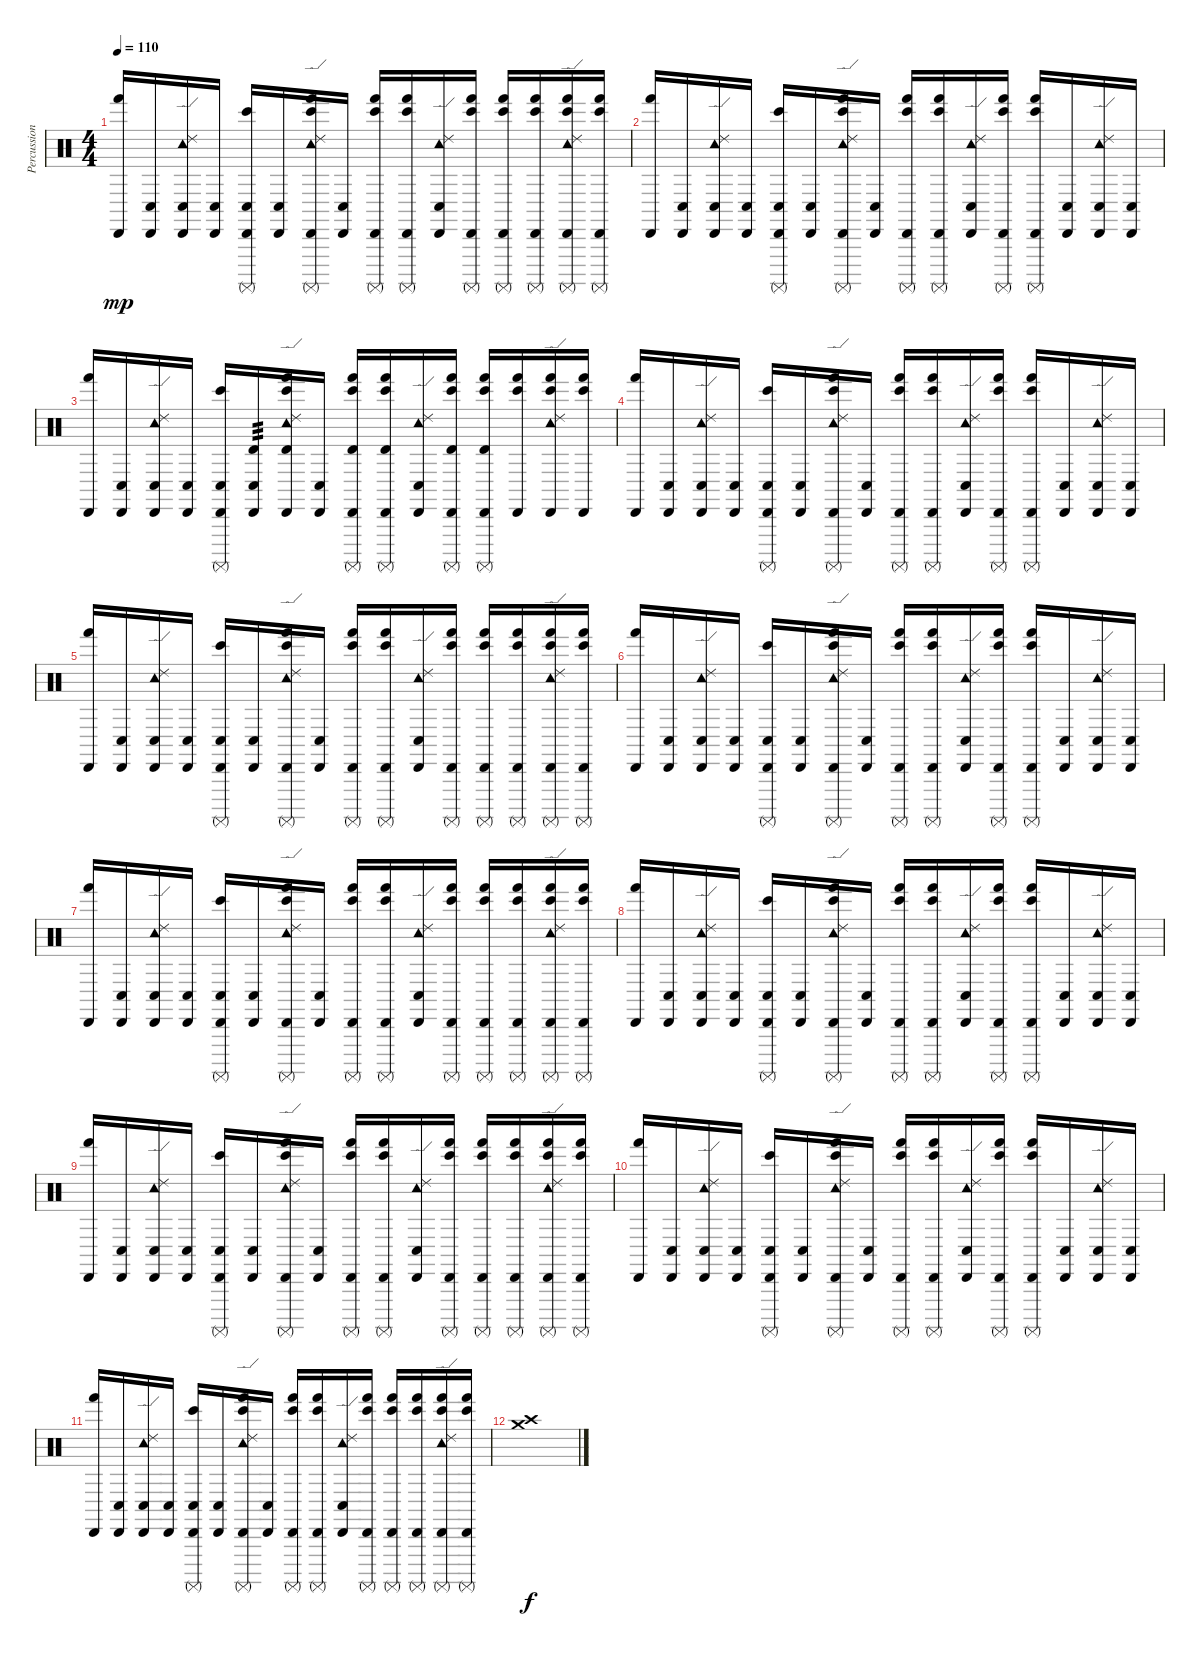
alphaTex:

\track ("Percussion" "Percussion") {instrument percussion}
\staff {score}
\articulation defaults
\ts (4 4)
\tempo 110
\clef neutral
\ks c
("Cabasa (hit)" "Hand (hit)").16{dy mp} ("Cabasa (hit)" "Conga low (hit)").16 ("Tambourine (hit)" "Ride (edge) 2" "Cabasa (hit)" "Conga low (hit)").16 ("Cabasa (hit)" "Conga low (hit)").16 ("Cabasa (hit)" "Surdo (mute)" "Bongo High (hit)" "Conga low (hit)").16 ("Cabasa (hit)" "Conga low (hit)").16 ("Tambourine (hit)" "Ride (edge) 2" "Cabasa (hit)" "Surdo (mute)" "Bongo High (hit)" "Hand (hit)").16 ("Cabasa (hit)" "Conga low (hit)").16 ("Cabasa (hit)" "Surdo (mute)" "Bongo High (hit)" "Hand (hit)").16 ("Cabasa (hit)" "Surdo (mute)" "Bongo High (hit)" "Hand (hit)").16 ("Tambourine (hit)" "Ride (edge) 2" "Cabasa (hit)" "Conga low (hit)").16 ("Cabasa (hit)" "Surdo (mute)" "Bongo High (hit)" "Hand (hit)").16 ("Cabasa (hit)" "Surdo (mute)" "Bongo High (hit)" "Hand (hit)").16 ("Cabasa (hit)" "Surdo (mute)" "Bongo High (hit)" "Hand (hit)").16 ("Tambourine (hit)" "Ride (edge) 2" "Cabasa (hit)" "Surdo (mute)" "Bongo High (hit)" "Hand (hit)").16 ("Cabasa (hit)" "Surdo (mute)" "Bongo High (hit)" "Hand (hit)").16 |
("Cabasa (hit)" "Hand (hit)").16 ("Cabasa (hit)" "Conga low (hit)").16 ("Tambourine (hit)" "Ride (edge) 2" "Cabasa (hit)" "Conga low (hit)").16 ("Cabasa (hit)" "Conga low (hit)").16 ("Cabasa (hit)" "Surdo (mute)" "Bongo High (hit)" "Conga low (hit)").16 ("Cabasa (hit)" "Conga low (hit)").16 ("Tambourine (hit)" "Ride (edge) 2" "Cabasa (hit)" "Surdo (mute)" "Bongo High (hit)" "Hand (hit)").16 ("Cabasa (hit)" "Conga low (hit)").16 ("Cabasa (hit)" "Surdo (mute)" "Bongo High (hit)" "Hand (hit)").16 ("Cabasa (hit)" "Surdo (mute)" "Bongo High (hit)" "Hand (hit)").16 ("Tambourine (hit)" "Ride (edge) 2" "Cabasa (hit)" "Conga low (hit)").16 ("Cabasa (hit)" "Surdo (mute)" "Bongo High (hit)" "Hand (hit)").16 ("Cabasa (hit)" "Surdo (mute)" "Bongo High (hit)" "Hand (hit)").16 ("Cabasa (hit)" "Conga low (hit)").16 ("Tambourine (hit)" "Ride (edge) 2" "Cabasa (hit)" "Conga low (hit)").16 ("Cabasa (hit)" "Conga low (hit)").16 |
("Cabasa (hit)" "Hand (hit)").16 ("Cabasa (hit)" "Conga low (hit)").16 ("Tambourine (hit)" "Ride (edge) 2" "Cabasa (hit)" "Conga low (hit)").16 ("Cabasa (hit)" "Conga low (hit)").16 ("Cabasa (hit)" "Surdo (mute)" "Bongo High (hit)" "Conga low (hit)").16 ("Cabasa (hit)" "Timbale high (hit)" "Conga low (hit)").16{tp 3} ("Tambourine (hit)" "Ride (edge) 2" "Cabasa (hit)" "Timbale high (hit)" "Bongo High (hit)" "Hand (hit)").16 ("Cabasa (hit)" "Conga low (hit)").16 ("Surdo (mute)" "Cabasa (hit)" "Timbale high (hit)" "Bongo High (hit)" "Hand (hit)").16 ("Surdo (mute)" "Cabasa (hit)" "Timbale high (hit)" "Bongo High (hit)" "Hand (hit)").16 ("Tambourine (hit)" "Ride (edge) 2" "Cabasa (hit)" "Conga low (hit)").16 ("Surdo (mute)" "Cabasa (hit)" "Timbale high (hit)" "Bongo High (hit)" "Hand (hit)").16 ("Surdo (mute)" "Cabasa (hit)" "Timbale high (hit)" "Bongo High (hit)" "Hand (hit)").16 ("Cabasa (hit)" "Bongo High (hit)" "Hand (hit)").16 ("Tambourine (hit)" "Ride (edge) 2" "Cabasa (hit)" "Bongo High (hit)" "Hand (hit)").16 ("Cabasa (hit)" "Bongo High (hit)" "Hand (hit)").16 |
("Cabasa (hit)" "Hand (hit)").16 ("Cabasa (hit)" "Conga low (hit)").16 ("Tambourine (hit)" "Ride (edge) 2" "Cabasa (hit)" "Conga low (hit)").16 ("Cabasa (hit)" "Conga low (hit)").16 ("Cabasa (hit)" "Surdo (mute)" "Bongo High (hit)" "Conga low (hit)").16 ("Cabasa (hit)" "Conga low (hit)").16 ("Tambourine (hit)" "Ride (edge) 2" "Cabasa (hit)" "Surdo (mute)" "Bongo High (hit)" "Hand (hit)").16 ("Cabasa (hit)" "Conga low (hit)").16 ("Cabasa (hit)" "Surdo (mute)" "Bongo High (hit)" "Hand (hit)").16 ("Cabasa (hit)" "Surdo (mute)" "Bongo High (hit)" "Hand (hit)").16 ("Tambourine (hit)" "Ride (edge) 2" "Cabasa (hit)" "Conga low (hit)").16 ("Cabasa (hit)" "Surdo (mute)" "Bongo High (hit)" "Hand (hit)").16 ("Cabasa (hit)" "Surdo (mute)" "Bongo High (hit)" "Hand (hit)").16 ("Cabasa (hit)" "Conga low (hit)").16 ("Tambourine (hit)" "Ride (edge) 2" "Cabasa (hit)" "Conga low (hit)").16 ("Cabasa (hit)" "Conga low (hit)").16 |
("Cabasa (hit)" "Hand (hit)").16 ("Cabasa (hit)" "Conga low (hit)").16 ("Tambourine (hit)" "Ride (edge) 2" "Cabasa (hit)" "Conga low (hit)").16 ("Cabasa (hit)" "Conga low (hit)").16 ("Cabasa (hit)" "Surdo (mute)" "Bongo High (hit)" "Conga low (hit)").16 ("Cabasa (hit)" "Conga low (hit)").16 ("Tambourine (hit)" "Ride (edge) 2" "Cabasa (hit)" "Surdo (mute)" "Bongo High (hit)" "Hand (hit)").16 ("Cabasa (hit)" "Conga low (hit)").16 ("Cabasa (hit)" "Surdo (mute)" "Bongo High (hit)" "Hand (hit)").16 ("Cabasa (hit)" "Surdo (mute)" "Bongo High (hit)" "Hand (hit)").16 ("Tambourine (hit)" "Ride (edge) 2" "Cabasa (hit)" "Conga low (hit)").16 ("Cabasa (hit)" "Surdo (mute)" "Bongo High (hit)" "Hand (hit)").16 ("Cabasa (hit)" "Surdo (mute)" "Bongo High (hit)" "Hand (hit)").16 ("Cabasa (hit)" "Surdo (mute)" "Bongo High (hit)" "Hand (hit)").16 ("Tambourine (hit)" "Ride (edge) 2" "Cabasa (hit)" "Surdo (mute)" "Bongo High (hit)" "Hand (hit)").16 ("Cabasa (hit)" "Surdo (mute)" "Bongo High (hit)" "Hand (hit)").16 |
("Cabasa (hit)" "Hand (hit)").16 ("Cabasa (hit)" "Conga low (hit)").16 ("Tambourine (hit)" "Ride (edge) 2" "Cabasa (hit)" "Conga low (hit)").16 ("Cabasa (hit)" "Conga low (hit)").16 ("Cabasa (hit)" "Surdo (mute)" "Bongo High (hit)" "Conga low (hit)").16 ("Cabasa (hit)" "Conga low (hit)").16 ("Tambourine (hit)" "Ride (edge) 2" "Cabasa (hit)" "Surdo (mute)" "Bongo High (hit)" "Hand (hit)").16 ("Cabasa (hit)" "Conga low (hit)").16 ("Cabasa (hit)" "Surdo (mute)" "Bongo High (hit)" "Hand (hit)").16 ("Cabasa (hit)" "Surdo (mute)" "Bongo High (hit)" "Hand (hit)").16 ("Tambourine (hit)" "Ride (edge) 2" "Cabasa (hit)" "Conga low (hit)").16 ("Cabasa (hit)" "Surdo (mute)" "Bongo High (hit)" "Hand (hit)").16 ("Cabasa (hit)" "Surdo (mute)" "Bongo High (hit)" "Hand (hit)").16 ("Cabasa (hit)" "Conga low (hit)").16 ("Tambourine (hit)" "Ride (edge) 2" "Cabasa (hit)" "Conga low (hit)").16 ("Cabasa (hit)" "Conga low (hit)").16 |
("Cabasa (hit)" "Hand (hit)").16 ("Cabasa (hit)" "Conga low (hit)").16 ("Tambourine (hit)" "Ride (edge) 2" "Cabasa (hit)" "Conga low (hit)").16 ("Cabasa (hit)" "Conga low (hit)").16 ("Cabasa (hit)" "Surdo (mute)" "Bongo High (hit)" "Conga low (hit)").16 ("Cabasa (hit)" "Conga low (hit)").16 ("Tambourine (hit)" "Ride (edge) 2" "Cabasa (hit)" "Surdo (mute)" "Bongo High (hit)" "Hand (hit)").16 ("Cabasa (hit)" "Conga low (hit)").16 ("Cabasa (hit)" "Surdo (mute)" "Bongo High (hit)" "Hand (hit)").16 ("Cabasa (hit)" "Surdo (mute)" "Bongo High (hit)" "Hand (hit)").16 ("Tambourine (hit)" "Ride (edge) 2" "Cabasa (hit)" "Conga low (hit)").16 ("Cabasa (hit)" "Surdo (mute)" "Bongo High (hit)" "Hand (hit)").16 ("Cabasa (hit)" "Surdo (mute)" "Bongo High (hit)" "Hand (hit)").16 ("Cabasa (hit)" "Surdo (mute)" "Bongo High (hit)" "Hand (hit)").16 ("Tambourine (hit)" "Ride (edge) 2" "Cabasa (hit)" "Surdo (mute)" "Bongo High (hit)" "Hand (hit)").16 ("Cabasa (hit)" "Surdo (mute)" "Bongo High (hit)" "Hand (hit)").16 |
("Cabasa (hit)" "Hand (hit)").16 ("Cabasa (hit)" "Conga low (hit)").16 ("Tambourine (hit)" "Ride (edge) 2" "Cabasa (hit)" "Conga low (hit)").16 ("Cabasa (hit)" "Conga low (hit)").16 ("Cabasa (hit)" "Surdo (mute)" "Bongo High (hit)" "Conga low (hit)").16 ("Cabasa (hit)" "Conga low (hit)").16 ("Tambourine (hit)" "Ride (edge) 2" "Cabasa (hit)" "Surdo (mute)" "Bongo High (hit)" "Hand (hit)").16 ("Cabasa (hit)" "Conga low (hit)").16 ("Cabasa (hit)" "Surdo (mute)" "Bongo High (hit)" "Hand (hit)").16 ("Cabasa (hit)" "Surdo (mute)" "Bongo High (hit)" "Hand (hit)").16 ("Tambourine (hit)" "Ride (edge) 2" "Cabasa (hit)" "Conga low (hit)").16 ("Cabasa (hit)" "Surdo (mute)" "Bongo High (hit)" "Hand (hit)").16 ("Cabasa (hit)" "Surdo (mute)" "Bongo High (hit)" "Hand (hit)").16 ("Cabasa (hit)" "Conga low (hit)").16 ("Tambourine (hit)" "Ride (edge) 2" "Cabasa (hit)" "Conga low (hit)").16 ("Cabasa (hit)" "Conga low (hit)").16 |
("Cabasa (hit)" "Hand (hit)").16 ("Cabasa (hit)" "Conga low (hit)").16 ("Tambourine (hit)" "Ride (edge) 2" "Cabasa (hit)" "Conga low (hit)").16 ("Cabasa (hit)" "Conga low (hit)").16 ("Cabasa (hit)" "Surdo (mute)" "Bongo High (hit)" "Conga low (hit)").16 ("Cabasa (hit)" "Conga low (hit)").16 ("Tambourine (hit)" "Ride (edge) 2" "Cabasa (hit)" "Surdo (mute)" "Bongo High (hit)" "Hand (hit)").16 ("Cabasa (hit)" "Conga low (hit)").16 ("Cabasa (hit)" "Surdo (mute)" "Bongo High (hit)" "Hand (hit)").16 ("Cabasa (hit)" "Surdo (mute)" "Bongo High (hit)" "Hand (hit)").16 ("Tambourine (hit)" "Ride (edge) 2" "Cabasa (hit)" "Conga low (hit)").16 ("Cabasa (hit)" "Surdo (mute)" "Bongo High (hit)" "Hand (hit)").16 ("Cabasa (hit)" "Surdo (mute)" "Bongo High (hit)" "Hand (hit)").16 ("Cabasa (hit)" "Surdo (mute)" "Bongo High (hit)" "Hand (hit)").16 ("Tambourine (hit)" "Ride (edge) 2" "Cabasa (hit)" "Surdo (mute)" "Bongo High (hit)" "Hand (hit)").16 ("Cabasa (hit)" "Surdo (mute)" "Bongo High (hit)" "Hand (hit)").16 |
("Cabasa (hit)" "Hand (hit)").16 ("Cabasa (hit)" "Conga low (hit)").16 ("Tambourine (hit)" "Ride (edge) 2" "Cabasa (hit)" "Conga low (hit)").16 ("Cabasa (hit)" "Conga low (hit)").16 ("Cabasa (hit)" "Surdo (mute)" "Bongo High (hit)" "Conga low (hit)").16 ("Cabasa (hit)" "Conga low (hit)").16 ("Tambourine (hit)" "Ride (edge) 2" "Cabasa (hit)" "Surdo (mute)" "Bongo High (hit)" "Hand (hit)").16 ("Cabasa (hit)" "Conga low (hit)").16 ("Cabasa (hit)" "Surdo (mute)" "Bongo High (hit)" "Hand (hit)").16 ("Cabasa (hit)" "Surdo (mute)" "Bongo High (hit)" "Hand (hit)").16 ("Tambourine (hit)" "Ride (edge) 2" "Cabasa (hit)" "Conga low (hit)").16 ("Cabasa (hit)" "Surdo (mute)" "Bongo High (hit)" "Hand (hit)").16 ("Cabasa (hit)" "Surdo (mute)" "Bongo High (hit)" "Hand (hit)").16 ("Cabasa (hit)" "Conga low (hit)").16 ("Tambourine (hit)" "Ride (edge) 2" "Cabasa (hit)" "Conga low (hit)").16 ("Cabasa (hit)" "Conga low (hit)").16 |
("Cabasa (hit)" "Hand (hit)").16 ("Cabasa (hit)" "Conga low (hit)").16 ("Tambourine (hit)" "Ride (edge) 2" "Cabasa (hit)" "Conga low (hit)").16 ("Cabasa (hit)" "Conga low (hit)").16 ("Cabasa (hit)" "Surdo (mute)" "Bongo High (hit)" "Conga low (hit)").16 ("Cabasa (hit)" "Conga low (hit)").16 ("Tambourine (hit)" "Ride (edge) 2" "Cabasa (hit)" "Surdo (mute)" "Bongo High (hit)" "Hand (hit)").16 ("Cabasa (hit)" "Conga low (hit)").16 ("Cabasa (hit)" "Surdo (mute)" "Bongo High (hit)" "Hand (hit)").16 ("Cabasa (hit)" "Surdo (mute)" "Bongo High (hit)" "Hand (hit)").16 ("Tambourine (hit)" "Ride (edge) 2" "Cabasa (hit)" "Conga low (hit)").16 ("Cabasa (hit)" "Surdo (mute)" "Bongo High (hit)" "Hand (hit)").16 ("Cabasa (hit)" "Surdo (mute)" "Bongo High (hit)" "Hand (hit)").16 ("Cabasa (hit)" "Surdo (mute)" "Bongo High (hit)" "Hand (hit)").16 ("Tambourine (hit)" "Ride (edge) 2" "Cabasa (hit)" "Surdo (mute)" "Bongo High (hit)" "Hand (hit)").16 ("Cabasa (hit)" "Surdo (mute)" "Bongo High (hit)" "Hand (hit)").16 |
("Crash medium (hit)" "Crash high (hit)").1{dy f}
